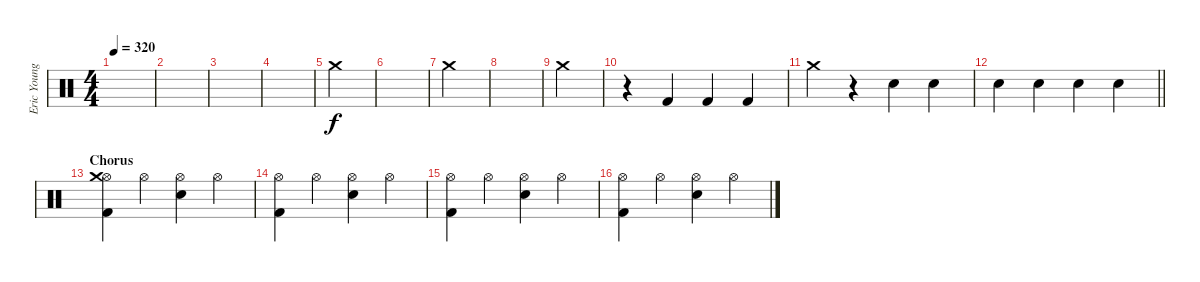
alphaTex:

\track ("Eric Young (Drums)" "Eric Young") {instrument percussion}
\staff {score}
\articulation defaults
\ts (4 4)
\tempo 320
\clef neutral
\ks c
|
|
|
|
"Crash medium (hit)".4 |
|
"Crash medium (hit)".4 |
|
"Crash medium (hit)".4 |
r.4 "Kick (hit) 2".4 "Kick (hit) 2".4 "Kick (hit) 2".4 |
"Crash medium (hit)".4 r.4 "Snare (hit) 2".4 "Snare (hit) 2".4 |
\barLineRight lightlight "Snare (hit) 2".4 "Snare (hit) 2".4 "Snare (hit) 2".4 "Snare (hit) 2".4
|
\section ("" "Chorus")
("Hi-Hat (open)" "Kick (hit) 2" "Crash medium (hit)").4 "Hi-Hat (open)".4 ("Hi-Hat (open)" "Snare (hit) 2").4 "Hi-Hat (open)".4 |
("Hi-Hat (open)" "Kick (hit) 2").4 "Hi-Hat (open)".4 ("Hi-Hat (open)" "Snare (hit) 2").4 "Hi-Hat (open)".4 |
("Hi-Hat (open)" "Kick (hit) 2").4 "Hi-Hat (open)".4 ("Hi-Hat (open)" "Snare (hit) 2").4 "Hi-Hat (open)".4 |
("Hi-Hat (open)" "Kick (hit) 2").4 "Hi-Hat (open)".4 ("Hi-Hat (open)" "Snare (hit) 2").4 "Hi-Hat (open)".4
